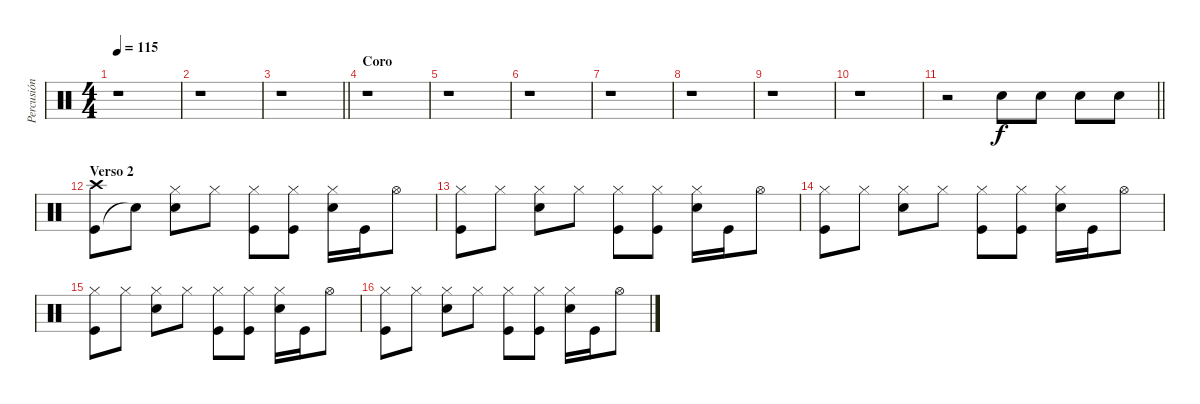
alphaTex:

\track ("Percusión" "Percusión") {instrument percussion}
\staff {score}
\articulation defaults
\ts (4 4)
\tempo 115
\clef neutral
\ks c
r.1{dy f} |
r.1 |
\barLineRight lightlight
r.1 |
\section ("" "Coro")
r.1 |
r.1 |
r.1 |
r.1 |
r.1 |
r.1 |
r.1 |
\barLineRight lightlight
r.2 "Snare (hit) 2".8 "Snare (hit) 2".8 "Snare (hit) 2".8 "Snare (hit) 2".8 |
\section ("" "Verso 2")
("Kick (hit)" "Crash high (hit)").8 "Snare (hit)"{t}.8 ("Snare (hit) 2" "Hi-Hat (closed)").8 "Hi-Hat (closed)".8 ("Kick (hit)" "Hi-Hat (closed)").8 ("Kick (hit)" "Hi-Hat (closed)").8 ("Snare (hit) 2" "Hi-Hat (closed)").16 "Kick (hit)".16 "Hi-Hat (open)".8 |
("Kick (hit)" "Hi-Hat (closed)").8 "Hi-Hat (closed)".8 ("Snare (hit) 2" "Hi-Hat (closed)").8 "Hi-Hat (closed)".8 ("Kick (hit)" "Hi-Hat (closed)").8 ("Kick (hit)" "Hi-Hat (closed)").8 ("Snare (hit) 2" "Hi-Hat (closed)").16 "Kick (hit)".16 "Hi-Hat (open)".8 |
("Kick (hit)" "Hi-Hat (closed)").8 "Hi-Hat (closed)".8 ("Snare (hit) 2" "Hi-Hat (closed)").8 "Hi-Hat (closed)".8 ("Kick (hit)" "Hi-Hat (closed)").8 ("Kick (hit)" "Hi-Hat (closed)").8 ("Snare (hit) 2" "Hi-Hat (closed)").16 "Kick (hit)".16 "Hi-Hat (open)".8 |
("Kick (hit)" "Hi-Hat (closed)").8 "Hi-Hat (closed)".8 ("Snare (hit) 2" "Hi-Hat (closed)").8 "Hi-Hat (closed)".8 ("Kick (hit)" "Hi-Hat (closed)").8 ("Kick (hit)" "Hi-Hat (closed)").8 ("Snare (hit) 2" "Hi-Hat (closed)").16 "Kick (hit)".16 "Hi-Hat (open)".8 |
("Kick (hit)" "Hi-Hat (closed)").8 "Hi-Hat (closed)".8 ("Snare (hit) 2" "Hi-Hat (closed)").8 "Hi-Hat (closed)".8 ("Kick (hit)" "Hi-Hat (closed)").8 ("Kick (hit)" "Hi-Hat (closed)").8 ("Snare (hit) 2" "Hi-Hat (closed)").16 "Kick (hit)".16 "Hi-Hat (open)".8
